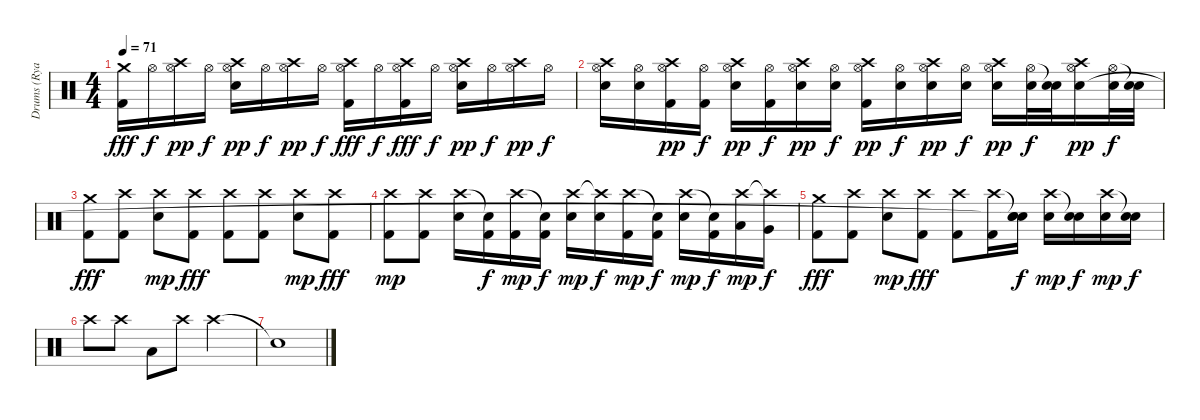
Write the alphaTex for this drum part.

\track ("Drums (Ryan \"Nik\" Vikedal)" "Drums (Rya") {instrument percussion}
\staff {score}
\articulation defaults
\ts (4 4)
\tempo 71
\clef neutral
\ks c
("Crash medium (hit)" "Kick (hit) 2").16{dy fff} "Hi-Hat (open)".16{dy f} ("Crash high (hit)" "Hi-Hat (open)").16{dy pp} "Hi-Hat (open)".16{dy f} ("Crash high (hit)" "Hi-Hat (open)" "Electric Snare (hit)").16{dy pp} "Hi-Hat (open)".16{dy f} ("Crash high (hit)" "Hi-Hat (open)").16{dy pp} "Hi-Hat (open)".16{dy f} ("Crash high (hit)" "Hi-Hat (open)" "Kick (hit) 2").16{dy fff} "Hi-Hat (open)".16{dy f} ("Crash high (hit)" "Hi-Hat (open)" "Kick (hit) 2").16{dy fff} "Hi-Hat (open)".16{dy f} ("Crash high (hit)" "Hi-Hat (open)" "Electric Snare (hit)").16{dy pp} "Hi-Hat (open)".16{dy f} ("Crash high (hit)" "Hi-Hat (open)").16{dy pp} "Hi-Hat (open)".16{dy f} |
("Crash high (hit)" "Hi-Hat (open)" "Electric Snare (hit)").16 ("Hi-Hat (open)" "Electric Snare (hit)").16 ("Crash high (hit)" "Hi-Hat (open)" "Kick (hit) 2").16{dy pp} ("Hi-Hat (open)" "Kick (hit) 2").16{dy f} ("Crash high (hit)" "Hi-Hat (open)" "Electric Snare (hit)").16{dy pp} ("Hi-Hat (open)" "Kick (hit) 2").16{dy f} ("Crash high (hit)" "Hi-Hat (open)" "Electric Snare (hit)").16{dy pp} ("Hi-Hat (open)" "Electric Snare (hit)").16{dy f} ("Crash high (hit)" "Hi-Hat (open)" "Kick (hit) 2").16{dy pp} ("Hi-Hat (open)" "Electric Snare (hit)").16{dy f} ("Crash high (hit)" "Hi-Hat (open)" "Electric Snare (hit)").16{dy pp} ("Hi-Hat (open)" "Electric Snare (hit)").16{dy f} ("Crash high (hit)" "Hi-Hat (open)" "Electric Snare (hit)").16{dy pp} ("Hi-Hat (open)" "Electric Snare (hit)").32{dy f} ("Snare (hit)"{t} "Electric Snare (hit)").32 ("Crash high (hit)" "Hi-Hat (open)" "Electric Snare (hit)").16{dy pp} ("Hi-Hat (open)" "Electric Snare (hit)").32{dy f} ("Snare (hit)"{t} "Electric Snare (hit)").32 |
("Crash medium (hit)" "Kick (hit) 2").8{dy fff} ("Crash high (hit)" "Kick (hit) 2").8 ("Crash high (hit)" "Electric Snare (hit)").8{dy mp} ("Crash high (hit)" "Kick (hit) 2").8{dy fff} ("Crash high (hit)" "Kick (hit) 2").8 ("Crash high (hit)" "Kick (hit) 2").8 ("Crash high (hit)" "Electric Snare (hit)").8{dy mp} ("Crash high (hit)" "Kick (hit) 2").8{dy fff} |
("Crash high (hit)" "Kick (hit) 2").8{dy mp} ("Crash high (hit)" "Kick (hit) 2").8 ("Crash high (hit)" "Electric Snare (hit)").16 ("Snare (hit)"{t} "Kick (hit) 2").16{dy f} ("Crash high (hit)" "Kick (hit) 2").16{dy mp} ("Snare (hit)"{t} "Kick (hit) 2").16{dy f} ("Crash high (hit)" "Electric Snare (hit)").16{dy mp} ("Crash high (hit)"{t} "Electric Snare (hit)").16{dy f} ("Crash high (hit)" "Kick (hit) 2").16{dy mp} ("Snare (hit)"{t} "Kick (hit) 2").16{dy f} ("Crash high (hit)" "Electric Snare (hit)").16{dy mp} ("Snare (hit)"{t} "Kick (hit) 2").16{dy f} ("Crash high (hit)" "Low Tom (hit)").16{dy mp} ("Crash high (hit)"{t} "Very Low Tom (hit)").16{dy f} |
("Crash medium (hit)" "Kick (hit) 2").8{dy fff} ("Crash high (hit)" "Kick (hit) 2").8 ("Crash high (hit)" "Electric Snare (hit)").8{dy mp} ("Crash high (hit)" "Kick (hit) 2").8{dy fff} ("Crash high (hit)" "Kick (hit) 2").8 ("Crash high (hit)" "Kick (hit) 2").16 ("Snare (hit)"{t} "Electric Snare (hit)" "Snare (hit)"{t}).16{dy f} ("Crash high (hit)" "Electric Snare (hit)").16{dy mp} ("Snare (hit)"{t} "Electric Snare (hit)").16{dy f} ("Crash high (hit)" "Electric Snare (hit)").16{dy mp} ("Snare (hit)"{t} "Electric Snare (hit)").16{dy f} |
"Crash high (hit)".8 "Crash high (hit)".8 "Low Tom (hit)".8 "Crash high (hit)".8 "Crash high (hit)".2 |
"Snare (hit)"{t}.1
